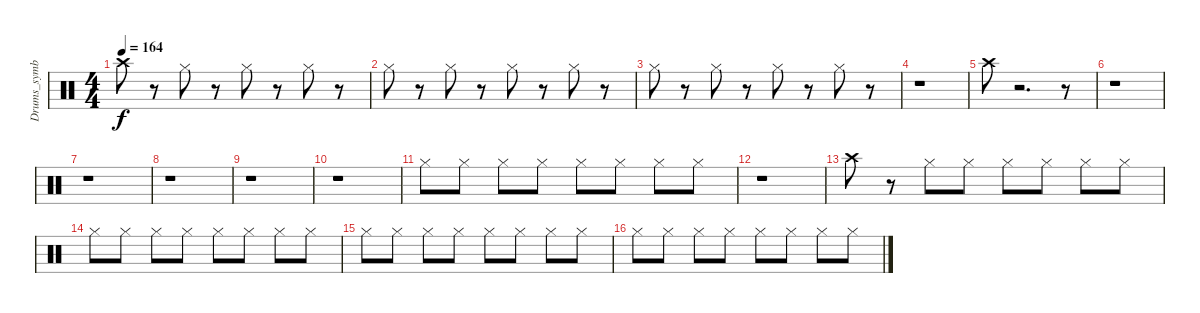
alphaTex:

\track ("Drums_symbal" "Drums_symb") {instrument percussion}
\staff {score}
\articulation defaults
\ts (4 4)
\tempo 164
\clef neutral
\ks c "Crash high (hit)".8{dy f}
r.8 "Hi-Hat (closed)".8 r.8 "Hi-Hat (closed)".8 r.8 "Hi-Hat (closed)".8 r.8 |
"Hi-Hat (closed)".8 r.8 "Hi-Hat (closed)".8 r.8 "Hi-Hat (closed)".8 r.8 "Hi-Hat (closed)".8 r.8 |
"Hi-Hat (closed)".8 r.8 "Hi-Hat (closed)".8 r.8 "Hi-Hat (closed)".8 r.8 "Hi-Hat (closed)".8 r.8 |
r.1 |
"Crash high (hit)".8 r.2{d} r.8 |
r.1 |
r.1 |
r.1 |
r.1 |
r.1 |
"Hi-Hat (closed)".8 "Hi-Hat (closed)".8 "Hi-Hat (closed)".8 "Hi-Hat (closed)".8 "Hi-Hat (closed)".8 "Hi-Hat (closed)".8 "Hi-Hat (closed)".8 "Hi-Hat (closed)".8 |
r.1 |
"Crash high (hit)".8 r.8 "Hi-Hat (closed)".8 "Hi-Hat (closed)".8 "Hi-Hat (closed)".8 "Hi-Hat (closed)".8 "Hi-Hat (closed)".8 "Hi-Hat (closed)".8 |
"Hi-Hat (closed)".8 "Hi-Hat (closed)".8 "Hi-Hat (closed)".8 "Hi-Hat (closed)".8 "Hi-Hat (closed)".8 "Hi-Hat (closed)".8 "Hi-Hat (closed)".8 "Hi-Hat (closed)".8 |
"Hi-Hat (closed)".8 "Hi-Hat (closed)".8 "Hi-Hat (closed)".8 "Hi-Hat (closed)".8 "Hi-Hat (closed)".8 "Hi-Hat (closed)".8 "Hi-Hat (closed)".8 "Hi-Hat (closed)".8 |
"Hi-Hat (closed)".8 "Hi-Hat (closed)".8 "Hi-Hat (closed)".8 "Hi-Hat (closed)".8 "Hi-Hat (closed)".8 "Hi-Hat (closed)".8 "Hi-Hat (closed)".8 "Hi-Hat (closed)".8
